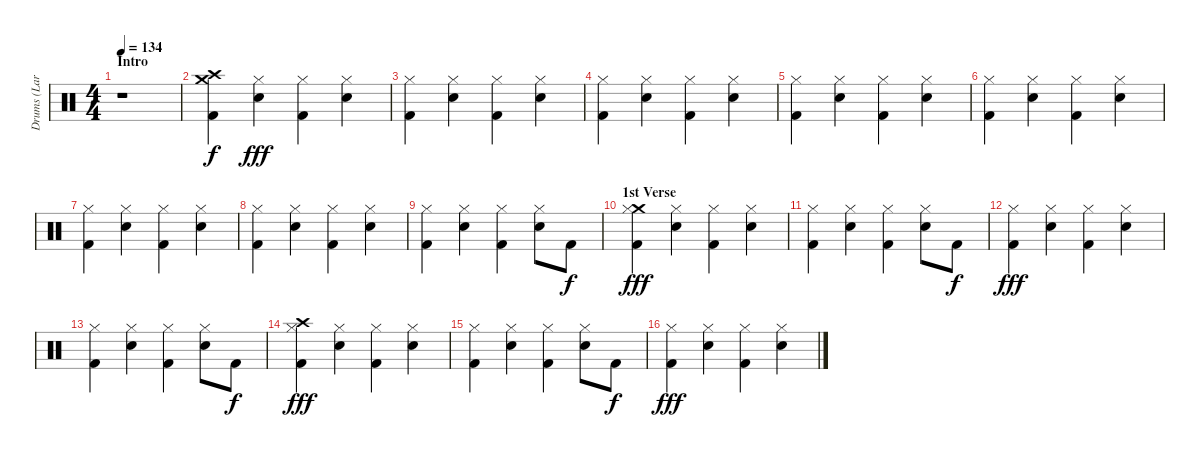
\track ("Drums (Lars)" "Drums (Lar") {instrument percussion}
\staff {score}
\articulation defaults
\ts (4 4)
\section ("" "Intro")
\tempo 134
\clef neutral
\ks c
r.1{dy f} |
("Crash high (hit)" "Crash medium (hit)" "Kick (hit) 2").4 ("Hi-Hat (closed)" "Snare (hit) 2").4{dy fff} ("Hi-Hat (closed)" "Kick (hit) 2").4 ("Hi-Hat (closed)" "Snare (hit) 2").4 |
("Hi-Hat (closed)" "Kick (hit) 2").4 ("Hi-Hat (closed)" "Snare (hit) 2").4 ("Hi-Hat (closed)" "Kick (hit) 2").4 ("Hi-Hat (closed)" "Snare (hit) 2").4 |
("Hi-Hat (closed)" "Kick (hit) 2").4 ("Hi-Hat (closed)" "Snare (hit) 2").4 ("Hi-Hat (closed)" "Kick (hit) 2").4 ("Hi-Hat (closed)" "Snare (hit) 2").4 |
("Hi-Hat (closed)" "Kick (hit) 2").4 ("Hi-Hat (closed)" "Snare (hit) 2").4 ("Hi-Hat (closed)" "Kick (hit) 2").4 ("Hi-Hat (closed)" "Snare (hit) 2").4 |
("Hi-Hat (closed)" "Kick (hit) 2").4 ("Hi-Hat (closed)" "Snare (hit) 2").4 ("Hi-Hat (closed)" "Kick (hit) 2").4 ("Hi-Hat (closed)" "Snare (hit) 2").4 |
("Hi-Hat (closed)" "Kick (hit) 2").4 ("Hi-Hat (closed)" "Snare (hit) 2").4 ("Hi-Hat (closed)" "Kick (hit) 2").4 ("Hi-Hat (closed)" "Snare (hit) 2").4 |
("Hi-Hat (closed)" "Kick (hit) 2").4 ("Hi-Hat (closed)" "Snare (hit) 2").4 ("Hi-Hat (closed)" "Kick (hit) 2").4 ("Hi-Hat (closed)" "Snare (hit) 2").4 |
("Hi-Hat (closed)" "Kick (hit) 2").4 ("Hi-Hat (closed)" "Snare (hit) 2").4 ("Hi-Hat (closed)" "Kick (hit) 2").4 ("Hi-Hat (closed)" "Snare (hit) 2").8 "Kick (hit) 2".8{dy f} |
\section ("" "1st Verse")
("Crash medium (hit)" "Hi-Hat (closed)" "Kick (hit) 2").4{dy fff} ("Hi-Hat (closed)" "Snare (hit) 2").4 ("Hi-Hat (closed)" "Kick (hit) 2").4 ("Hi-Hat (closed)" "Snare (hit) 2").4 |
("Hi-Hat (closed)" "Kick (hit) 2").4 ("Hi-Hat (closed)" "Snare (hit) 2").4 ("Hi-Hat (closed)" "Kick (hit) 2").4 ("Hi-Hat (closed)" "Snare (hit) 2").8 "Kick (hit) 2".8{dy f} |
("Hi-Hat (closed)" "Kick (hit) 2").4{dy fff} ("Hi-Hat (closed)" "Snare (hit) 2").4 ("Hi-Hat (closed)" "Kick (hit) 2").4 ("Hi-Hat (closed)" "Snare (hit) 2").4 |
("Hi-Hat (closed)" "Kick (hit) 2").4 ("Hi-Hat (closed)" "Snare (hit) 2").4 ("Hi-Hat (closed)" "Kick (hit) 2").4 ("Hi-Hat (closed)" "Snare (hit) 2").8 "Kick (hit) 2".8{dy f} |
("Crash high (hit)" "Hi-Hat (closed)" "Kick (hit) 2").4{dy fff} ("Hi-Hat (closed)" "Snare (hit) 2").4 ("Hi-Hat (closed)" "Kick (hit) 2").4 ("Hi-Hat (closed)" "Snare (hit) 2").4 |
("Hi-Hat (closed)" "Kick (hit) 2").4 ("Hi-Hat (closed)" "Snare (hit) 2").4 ("Hi-Hat (closed)" "Kick (hit) 2").4 ("Hi-Hat (closed)" "Snare (hit) 2").8 "Kick (hit) 2".8{dy f} |
("Hi-Hat (closed)" "Kick (hit) 2").4{dy fff} ("Hi-Hat (closed)" "Snare (hit) 2").4 ("Hi-Hat (closed)" "Kick (hit) 2").4 ("Hi-Hat (closed)" "Snare (hit) 2").4
